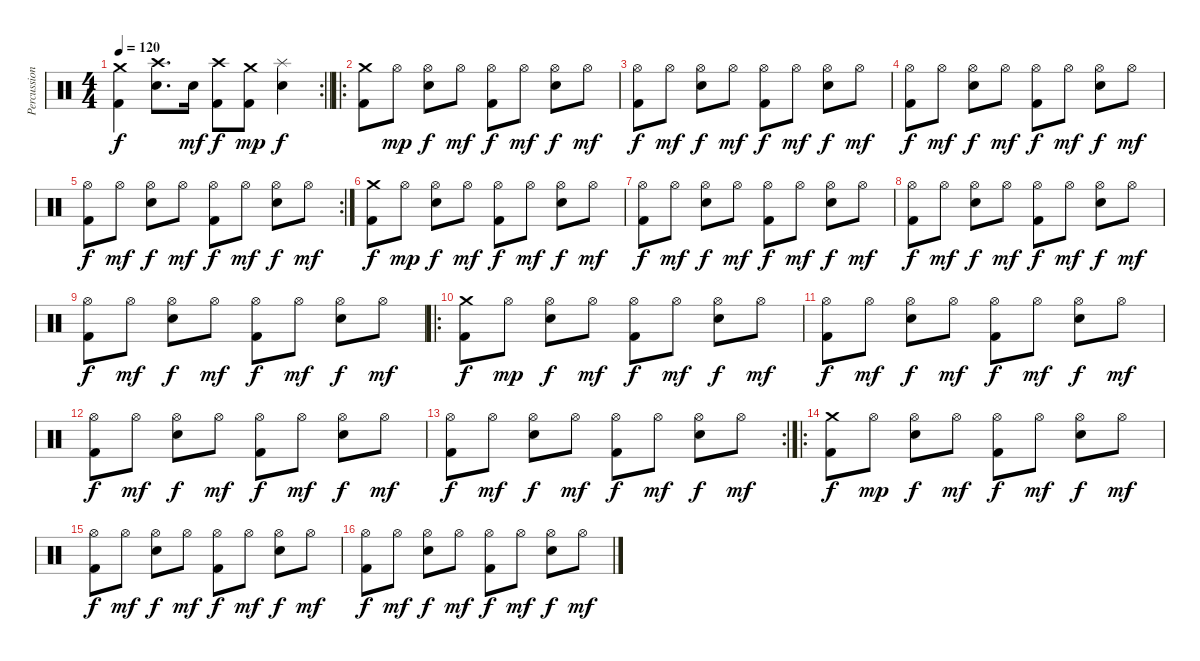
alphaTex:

\track ("Percussion" "Percussion") {instrument percussion}
\staff {score}
\articulation defaults
\rc 2
\ts (4 4)
\tempo 120
\clef neutral
\barLineRight lightlight
\ks c
("Crash medium (hit)" "Kick (hit) 2").4{dy f} ("Crash high (hit)" "Electric Snare (hit)").8{d} "Electric Snare (hit)".16{dy mf} ("Crash high (hit)" "Kick (hit) 2").8{dy f} ("Crash medium (hit)" "Kick (hit) 2").8{dy mp} ("Splash (hit)" "Electric Snare (hit)").4{dy f} |
\ro
("Crash medium (hit)" "Kick (hit) 2").8 "Hi-Hat (open)".8{dy mp} ("Hi-Hat (open)" "Electric Snare (hit)").8{dy f} "Hi-Hat (open)".8{dy mf} ("Hi-Hat (open)" "Kick (hit) 2").8{dy f} "Hi-Hat (open)".8{dy mf} ("Hi-Hat (open)" "Electric Snare (hit)").8{dy f} "Hi-Hat (open)".8{dy mf} |
("Hi-Hat (open)" "Kick (hit) 2").8{dy f} "Hi-Hat (open)".8{dy mf} ("Hi-Hat (open)" "Electric Snare (hit)").8{dy f} "Hi-Hat (open)".8{dy mf} ("Hi-Hat (open)" "Kick (hit) 2").8{dy f} "Hi-Hat (open)".8{dy mf} ("Hi-Hat (open)" "Electric Snare (hit)").8{dy f} "Hi-Hat (open)".8{dy mf} |
("Hi-Hat (open)" "Kick (hit) 2").8{dy f} "Hi-Hat (open)".8{dy mf} ("Hi-Hat (open)" "Electric Snare (hit)").8{dy f} "Hi-Hat (open)".8{dy mf} ("Hi-Hat (open)" "Kick (hit) 2").8{dy f} "Hi-Hat (open)".8{dy mf} ("Hi-Hat (open)" "Electric Snare (hit)").8{dy f} "Hi-Hat (open)".8{dy mf} |
\rc 2
("Hi-Hat (open)" "Kick (hit) 2").8{dy f} "Hi-Hat (open)".8{dy mf} ("Hi-Hat (open)" "Electric Snare (hit)").8{dy f} "Hi-Hat (open)".8{dy mf} ("Hi-Hat (open)" "Kick (hit) 2").8{dy f} "Hi-Hat (open)".8{dy mf} ("Hi-Hat (open)" "Electric Snare (hit)").8{dy f} "Hi-Hat (open)".8{dy mf} |
("Crash medium (hit)" "Kick (hit) 2").8{dy f} "Hi-Hat (open)".8{dy mp} ("Hi-Hat (open)" "Electric Snare (hit)").8{dy f} "Hi-Hat (open)".8{dy mf} ("Hi-Hat (open)" "Kick (hit) 2").8{dy f} "Hi-Hat (open)".8{dy mf} ("Hi-Hat (open)" "Electric Snare (hit)").8{dy f} "Hi-Hat (open)".8{dy mf} |
("Hi-Hat (open)" "Kick (hit) 2").8{dy f} "Hi-Hat (open)".8{dy mf} ("Hi-Hat (open)" "Electric Snare (hit)").8{dy f} "Hi-Hat (open)".8{dy mf} ("Hi-Hat (open)" "Kick (hit) 2").8{dy f} "Hi-Hat (open)".8{dy mf} ("Hi-Hat (open)" "Electric Snare (hit)").8{dy f} "Hi-Hat (open)".8{dy mf} |
("Hi-Hat (open)" "Kick (hit) 2").8{dy f} "Hi-Hat (open)".8{dy mf} ("Hi-Hat (open)" "Electric Snare (hit)").8{dy f} "Hi-Hat (open)".8{dy mf} ("Hi-Hat (open)" "Kick (hit) 2").8{dy f} "Hi-Hat (open)".8{dy mf} ("Hi-Hat (open)" "Electric Snare (hit)").8{dy f} "Hi-Hat (open)".8{dy mf} |
("Hi-Hat (open)" "Kick (hit) 2").8{dy f} "Hi-Hat (open)".8{dy mf} ("Hi-Hat (open)" "Electric Snare (hit)").8{dy f} "Hi-Hat (open)".8{dy mf} ("Hi-Hat (open)" "Kick (hit) 2").8{dy f} "Hi-Hat (open)".8{dy mf} ("Hi-Hat (open)" "Electric Snare (hit)").8{dy f} "Hi-Hat (open)".8{dy mf} |
\ro
("Crash medium (hit)" "Kick (hit) 2").8{dy f} "Hi-Hat (open)".8{dy mp} ("Hi-Hat (open)" "Electric Snare (hit)").8{dy f} "Hi-Hat (open)".8{dy mf} ("Hi-Hat (open)" "Kick (hit) 2").8{dy f} "Hi-Hat (open)".8{dy mf} ("Hi-Hat (open)" "Electric Snare (hit)").8{dy f} "Hi-Hat (open)".8{dy mf} |
("Hi-Hat (open)" "Kick (hit) 2").8{dy f} "Hi-Hat (open)".8{dy mf} ("Hi-Hat (open)" "Electric Snare (hit)").8{dy f} "Hi-Hat (open)".8{dy mf} ("Hi-Hat (open)" "Kick (hit) 2").8{dy f} "Hi-Hat (open)".8{dy mf} ("Hi-Hat (open)" "Electric Snare (hit)").8{dy f} "Hi-Hat (open)".8{dy mf} |
("Hi-Hat (open)" "Kick (hit) 2").8{dy f} "Hi-Hat (open)".8{dy mf} ("Hi-Hat (open)" "Electric Snare (hit)").8{dy f} "Hi-Hat (open)".8{dy mf} ("Hi-Hat (open)" "Kick (hit) 2").8{dy f} "Hi-Hat (open)".8{dy mf} ("Hi-Hat (open)" "Electric Snare (hit)").8{dy f} "Hi-Hat (open)".8{dy mf} |
\rc 2
("Hi-Hat (open)" "Kick (hit) 2").8{dy f} "Hi-Hat (open)".8{dy mf} ("Hi-Hat (open)" "Electric Snare (hit)").8{dy f} "Hi-Hat (open)".8{dy mf} ("Hi-Hat (open)" "Kick (hit) 2").8{dy f} "Hi-Hat (open)".8{dy mf} ("Hi-Hat (open)" "Electric Snare (hit)").8{dy f} "Hi-Hat (open)".8{dy mf} |
\ro
("Crash medium (hit)" "Kick (hit) 2").8{dy f} "Hi-Hat (open)".8{dy mp} ("Hi-Hat (open)" "Electric Snare (hit)").8{dy f} "Hi-Hat (open)".8{dy mf} ("Hi-Hat (open)" "Kick (hit) 2").8{dy f} "Hi-Hat (open)".8{dy mf} ("Hi-Hat (open)" "Electric Snare (hit)").8{dy f} "Hi-Hat (open)".8{dy mf} |
("Hi-Hat (open)" "Kick (hit) 2").8{dy f} "Hi-Hat (open)".8{dy mf} ("Hi-Hat (open)" "Electric Snare (hit)").8{dy f} "Hi-Hat (open)".8{dy mf} ("Hi-Hat (open)" "Kick (hit) 2").8{dy f} "Hi-Hat (open)".8{dy mf} ("Hi-Hat (open)" "Electric Snare (hit)").8{dy f} "Hi-Hat (open)".8{dy mf} |
("Hi-Hat (open)" "Kick (hit) 2").8{dy f} "Hi-Hat (open)".8{dy mf} ("Hi-Hat (open)" "Electric Snare (hit)").8{dy f} "Hi-Hat (open)".8{dy mf} ("Hi-Hat (open)" "Kick (hit) 2").8{dy f} "Hi-Hat (open)".8{dy mf} ("Hi-Hat (open)" "Electric Snare (hit)").8{dy f} "Hi-Hat (open)".8{dy mf}
